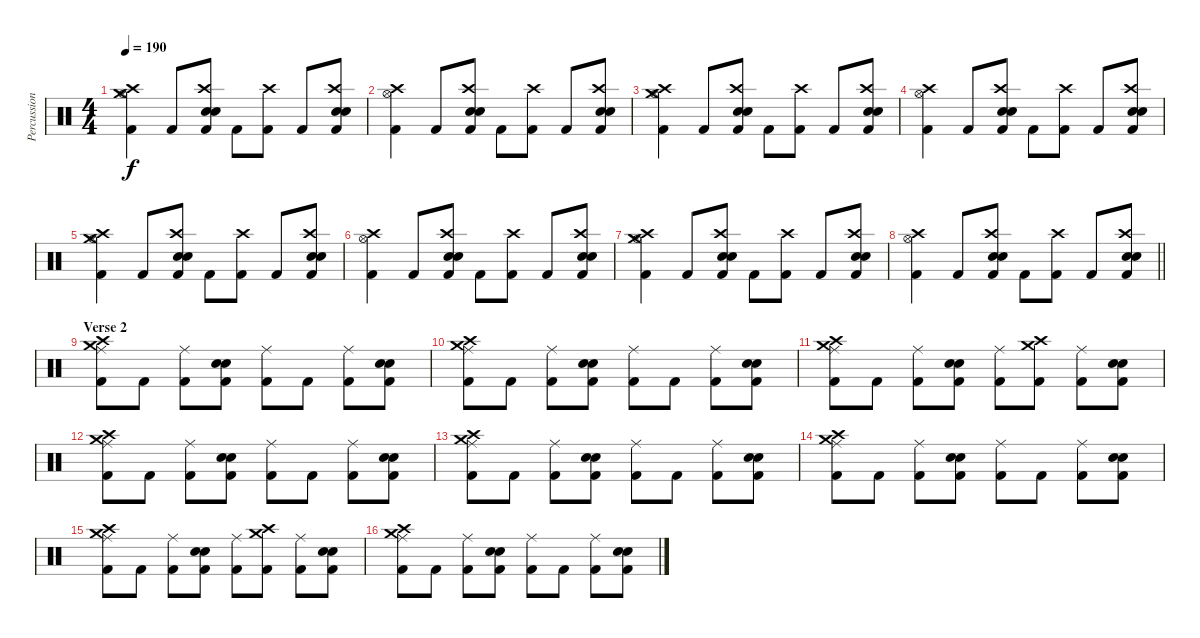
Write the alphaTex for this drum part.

\track ("Percussion" "Percussion") {instrument percussion}
\staff {score}
\articulation defaults
\ts (4 4)
\tempo 190
\clef neutral
\ks c
("Hi-Hat (open)" "Kick (hit) 2" "Crash medium (hit)" "Crash high (hit)").4{dy f} "Kick (hit) 2".8 ("Electric Snare (hit)" "Snare (hit) 2" "Kick (hit) 2" "Crash high (hit)").8 "Kick (hit) 2".8 ("Kick (hit) 2" "Crash high (hit)").8 "Kick (hit) 2".8 ("Electric Snare (hit)" "Snare (hit) 2" "Kick (hit) 2" "Crash high (hit)").8 |
("Hi-Hat (open)" "Kick (hit) 2" "Crash high (hit)").4 "Kick (hit) 2".8 ("Electric Snare (hit)" "Snare (hit) 2" "Kick (hit) 2" "Crash high (hit)").8 "Kick (hit) 2".8 ("Kick (hit) 2" "Crash high (hit)").8 "Kick (hit) 2".8 ("Electric Snare (hit)" "Snare (hit) 2" "Kick (hit) 2" "Crash high (hit)").8 |
("Hi-Hat (open)" "Kick (hit) 2" "Crash medium (hit)" "Crash high (hit)").4 "Kick (hit) 2".8 ("Electric Snare (hit)" "Snare (hit) 2" "Kick (hit) 2" "Crash high (hit)").8 "Kick (hit) 2".8 ("Kick (hit) 2" "Crash high (hit)").8 "Kick (hit) 2".8 ("Electric Snare (hit)" "Snare (hit) 2" "Kick (hit) 2" "Crash high (hit)").8 |
("Hi-Hat (open)" "Kick (hit) 2" "Crash high (hit)").4 "Kick (hit) 2".8 ("Electric Snare (hit)" "Snare (hit) 2" "Kick (hit) 2" "Crash high (hit)").8 "Kick (hit) 2".8 ("Kick (hit) 2" "Crash high (hit)").8 "Kick (hit) 2".8 ("Electric Snare (hit)" "Snare (hit) 2" "Kick (hit) 2" "Crash high (hit)").8 |
("Hi-Hat (open)" "Kick (hit) 2" "Crash medium (hit)" "Crash high (hit)").4 "Kick (hit) 2".8 ("Electric Snare (hit)" "Snare (hit) 2" "Kick (hit) 2" "Crash high (hit)").8 "Kick (hit) 2".8 ("Kick (hit) 2" "Crash high (hit)").8 "Kick (hit) 2".8 ("Electric Snare (hit)" "Snare (hit) 2" "Kick (hit) 2" "Crash high (hit)").8 |
("Hi-Hat (open)" "Kick (hit) 2" "Crash high (hit)").4 "Kick (hit) 2".8 ("Electric Snare (hit)" "Snare (hit) 2" "Kick (hit) 2" "Crash high (hit)").8 "Kick (hit) 2".8 ("Kick (hit) 2" "Crash high (hit)").8 "Kick (hit) 2".8 ("Electric Snare (hit)" "Snare (hit) 2" "Kick (hit) 2" "Crash high (hit)").8 |
("Hi-Hat (open)" "Kick (hit) 2" "Crash medium (hit)" "Crash high (hit)").4 "Kick (hit) 2".8 ("Electric Snare (hit)" "Snare (hit) 2" "Kick (hit) 2" "Crash high (hit)").8 "Kick (hit) 2".8 ("Kick (hit) 2" "Crash high (hit)").8 "Kick (hit) 2".8 ("Electric Snare (hit)" "Snare (hit) 2" "Kick (hit) 2" "Crash high (hit)").8 |
\barLineRight lightlight
("Hi-Hat (open)" "Kick (hit) 2" "Crash high (hit)").4 "Kick (hit) 2".8 ("Electric Snare (hit)" "Snare (hit) 2" "Kick (hit) 2" "Crash high (hit)").8 "Kick (hit) 2".8 ("Kick (hit) 2" "Crash high (hit)").8 "Kick (hit) 2".8 ("Electric Snare (hit)" "Snare (hit) 2" "Kick (hit) 2" "Crash high (hit)").8 |
\section ("" "Verse 2")
("Ride (middle)" "Kick (hit) 2" "Crash medium (hit)" "Crash high (hit)").8 "Kick (hit) 2".8 ("Ride (middle)" "Kick (hit) 2").8 ("Electric Snare (hit)" "Snare (hit) 2" "Kick (hit) 2").8 ("Ride (middle)" "Kick (hit) 2").8 "Kick (hit) 2".8 ("Ride (middle)" "Kick (hit) 2").8 ("Electric Snare (hit)" "Snare (hit) 2" "Kick (hit) 2").8 |
("Ride (middle)" "Kick (hit) 2" "Crash medium (hit)" "Crash high (hit)").8 "Kick (hit) 2".8 ("Ride (middle)" "Kick (hit) 2").8 ("Electric Snare (hit)" "Snare (hit) 2" "Kick (hit) 2").8 ("Ride (middle)" "Kick (hit) 2").8 "Kick (hit) 2".8 ("Ride (middle)" "Kick (hit) 2").8 ("Electric Snare (hit)" "Snare (hit) 2" "Kick (hit) 2").8 |
("Ride (middle)" "Kick (hit) 2" "Crash medium (hit)" "Crash high (hit)").8 "Kick (hit) 2".8 ("Ride (middle)" "Kick (hit) 2").8 ("Electric Snare (hit)" "Snare (hit) 2" "Kick (hit) 2").8 ("Ride (middle)" "Kick (hit) 2").8 ("Kick (hit) 2" "Crash medium (hit)" "Crash high (hit)").8 ("Ride (middle)" "Kick (hit) 2").8 ("Electric Snare (hit)" "Snare (hit) 2" "Kick (hit) 2").8 |
("Ride (middle)" "Kick (hit) 2" "Crash medium (hit)" "Crash high (hit)").8 "Kick (hit) 2".8 ("Ride (middle)" "Kick (hit) 2").8 ("Electric Snare (hit)" "Snare (hit) 2" "Kick (hit) 2").8 ("Ride (middle)" "Kick (hit) 2").8 "Kick (hit) 2".8 ("Ride (middle)" "Kick (hit) 2").8 ("Electric Snare (hit)" "Snare (hit) 2" "Kick (hit) 2").8 |
("Ride (middle)" "Kick (hit) 2" "Crash medium (hit)" "Crash high (hit)").8 "Kick (hit) 2".8 ("Ride (middle)" "Kick (hit) 2").8 ("Electric Snare (hit)" "Snare (hit) 2" "Kick (hit) 2").8 ("Ride (middle)" "Kick (hit) 2").8 "Kick (hit) 2".8 ("Ride (middle)" "Kick (hit) 2").8 ("Electric Snare (hit)" "Snare (hit) 2" "Kick (hit) 2").8 |
("Ride (middle)" "Kick (hit) 2" "Crash medium (hit)" "Crash high (hit)").8 "Kick (hit) 2".8 ("Ride (middle)" "Kick (hit) 2").8 ("Electric Snare (hit)" "Snare (hit) 2" "Kick (hit) 2").8 ("Ride (middle)" "Kick (hit) 2").8 "Kick (hit) 2".8 ("Ride (middle)" "Kick (hit) 2").8 ("Electric Snare (hit)" "Snare (hit) 2" "Kick (hit) 2").8 |
("Ride (middle)" "Kick (hit) 2" "Crash medium (hit)" "Crash high (hit)").8 "Kick (hit) 2".8 ("Ride (middle)" "Kick (hit) 2").8 ("Electric Snare (hit)" "Snare (hit) 2" "Kick (hit) 2").8 ("Ride (middle)" "Kick (hit) 2").8 ("Kick (hit) 2" "Crash medium (hit)" "Crash high (hit)").8 ("Ride (middle)" "Kick (hit) 2").8 ("Electric Snare (hit)" "Snare (hit) 2" "Kick (hit) 2").8 |
("Ride (middle)" "Kick (hit) 2" "Crash medium (hit)" "Crash high (hit)").8 "Kick (hit) 2".8 ("Ride (middle)" "Kick (hit) 2").8 ("Electric Snare (hit)" "Snare (hit) 2" "Kick (hit) 2").8 ("Ride (middle)" "Kick (hit) 2").8 "Kick (hit) 2".8 ("Ride (middle)" "Kick (hit) 2").8 ("Electric Snare (hit)" "Snare (hit) 2" "Kick (hit) 2").8
